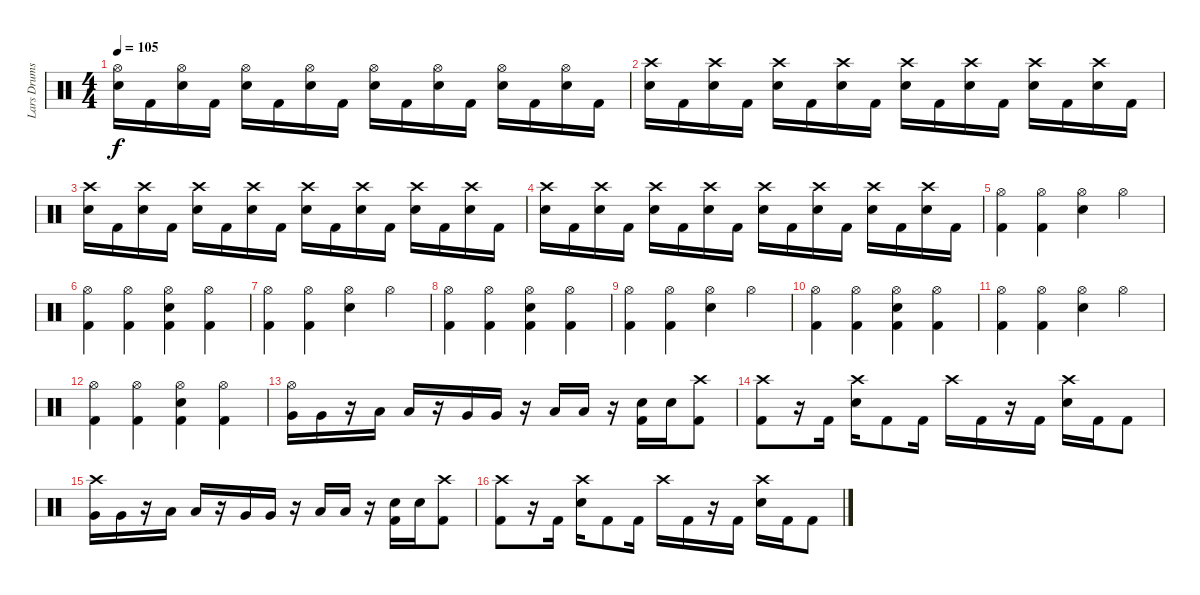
\track ("Lars Drums" "Lars Drums") {instrument percussion}
\staff {score}
\articulation defaults
\ts (4 4)
\tempo 105
\clef neutral
\ks c
("Hi-Hat (open)" "Snare (hit) 2").16{dy f} "Kick (hit) 2".16 ("Hi-Hat (open)" "Snare (hit) 2").16 "Kick (hit) 2".16 ("Hi-Hat (open)" "Snare (hit) 2").16 "Kick (hit) 2".16 ("Hi-Hat (open)" "Snare (hit) 2").16 "Kick (hit) 2".16 ("Hi-Hat (open)" "Snare (hit) 2").16 "Kick (hit) 2".16 ("Hi-Hat (open)" "Snare (hit) 2").16 "Kick (hit) 2".16 ("Hi-Hat (open)" "Snare (hit) 2").16 "Kick (hit) 2".16 ("Hi-Hat (open)" "Snare (hit) 2").16 "Kick (hit) 2".16 |
("Crash high (hit)" "Snare (hit) 2").16 "Kick (hit) 2".16 ("Crash high (hit)" "Snare (hit) 2").16 "Kick (hit) 2".16 ("Crash high (hit)" "Snare (hit) 2").16 "Kick (hit) 2".16 ("Crash high (hit)" "Snare (hit) 2").16 "Kick (hit) 2".16 ("Crash high (hit)" "Snare (hit) 2").16 "Kick (hit) 2".16 ("Crash high (hit)" "Snare (hit) 2").16 "Kick (hit) 2".16 ("Crash high (hit)" "Snare (hit) 2").16 "Kick (hit) 2".16 ("Crash high (hit)" "Snare (hit) 2").16 "Kick (hit) 2".16 |
("Crash high (hit)" "Snare (hit) 2").16 "Kick (hit) 2".16 ("Crash high (hit)" "Snare (hit) 2").16 "Kick (hit) 2".16 ("Crash high (hit)" "Snare (hit) 2").16 "Kick (hit) 2".16 ("Crash high (hit)" "Snare (hit) 2").16 "Kick (hit) 2".16 ("Crash high (hit)" "Snare (hit) 2").16 "Kick (hit) 2".16 ("Crash high (hit)" "Snare (hit) 2").16 "Kick (hit) 2".16 ("Crash high (hit)" "Snare (hit) 2").16 "Kick (hit) 2".16 ("Crash high (hit)" "Snare (hit) 2").16 "Kick (hit) 2".16 |
("Crash high (hit)" "Snare (hit) 2").16 "Kick (hit) 2".16 ("Crash high (hit)" "Snare (hit) 2").16 "Kick (hit) 2".16 ("Crash high (hit)" "Snare (hit) 2").16 "Kick (hit) 2".16 ("Crash high (hit)" "Snare (hit) 2").16 "Kick (hit) 2".16 ("Crash high (hit)" "Snare (hit) 2").16 "Kick (hit) 2".16 ("Crash high (hit)" "Snare (hit) 2").16 "Kick (hit) 2".16 ("Crash high (hit)" "Snare (hit) 2").16 "Kick (hit) 2".16 ("Crash high (hit)" "Snare (hit) 2").16 "Kick (hit) 2".16 |
("Hi-Hat (open)" "Kick (hit) 2").4 ("Hi-Hat (open)" "Kick (hit) 2").4 ("Hi-Hat (open)" "Snare (hit) 2").4 "Hi-Hat (open)".4 |
("Hi-Hat (open)" "Kick (hit) 2").4 ("Hi-Hat (open)" "Kick (hit) 2").4 ("Hi-Hat (open)" "Kick (hit) 2" "Snare (hit) 2").4 ("Hi-Hat (open)" "Kick (hit) 2").4 |
("Hi-Hat (open)" "Kick (hit) 2").4 ("Hi-Hat (open)" "Kick (hit) 2").4 ("Hi-Hat (open)" "Snare (hit) 2").4 "Hi-Hat (open)".4 |
("Hi-Hat (open)" "Kick (hit) 2").4 ("Hi-Hat (open)" "Kick (hit) 2").4 ("Hi-Hat (open)" "Kick (hit) 2" "Snare (hit) 2").4 ("Hi-Hat (open)" "Kick (hit) 2").4 |
("Hi-Hat (open)" "Kick (hit) 2").4 ("Hi-Hat (open)" "Kick (hit) 2").4 ("Hi-Hat (open)" "Snare (hit) 2").4 "Hi-Hat (open)".4 |
("Hi-Hat (open)" "Kick (hit) 2").4 ("Hi-Hat (open)" "Kick (hit) 2").4 ("Hi-Hat (open)" "Kick (hit) 2" "Snare (hit) 2").4 ("Hi-Hat (open)" "Kick (hit) 2").4 |
("Hi-Hat (open)" "Kick (hit) 2").4 ("Hi-Hat (open)" "Kick (hit) 2").4 ("Hi-Hat (open)" "Snare (hit) 2").4 "Hi-Hat (open)".4 |
("Hi-Hat (open)" "Kick (hit) 2").4 ("Hi-Hat (open)" "Kick (hit) 2").4 ("Hi-Hat (open)" "Kick (hit) 2" "Snare (hit) 2").4 ("Hi-Hat (open)" "Kick (hit) 2").4 |
("Hi-Hat (open)" "Very Low Tom (hit)").16 "Very Low Tom (hit)".16 r.16 "Low Floor Tom (hit)".16 "Low Floor Tom (hit)".16 r.16 "Very Low Tom (hit)".16 "Very Low Tom (hit)".16 r.16 "Low Floor Tom (hit)".16 "Low Floor Tom (hit)".16 r.16 ("Kick (hit) 2" "Snare (hit) 2").16 "Snare (hit) 2".16 ("Crash high (hit)" "Kick (hit) 2").8 |
("Crash high (hit)" "Kick (hit) 2").8 r.16 "Kick (hit) 2".16 ("Crash high (hit)" "Snare (hit) 2").16 "Kick (hit) 2".8 "Kick (hit) 2".16 "Crash high (hit)".16 "Kick (hit) 2".16 r.16 "Kick (hit) 2".16 ("Crash high (hit)" "Snare (hit) 2").16 "Kick (hit) 2".16 "Kick (hit) 2".8 |
("Crash high (hit)" "Very Low Tom (hit)").16 "Very Low Tom (hit)".16 r.16 "Low Floor Tom (hit)".16 "Low Floor Tom (hit)".16 r.16 "Very Low Tom (hit)".16 "Very Low Tom (hit)".16 r.16 "Low Floor Tom (hit)".16 "Low Floor Tom (hit)".16 r.16 ("Kick (hit) 2" "Snare (hit) 2").16 "Snare (hit) 2".16 ("Crash high (hit)" "Kick (hit) 2").8 |
("Crash high (hit)" "Kick (hit) 2").8 r.16 "Kick (hit) 2".16 ("Crash high (hit)" "Snare (hit) 2").16 "Kick (hit) 2".8 "Kick (hit) 2".16 "Crash high (hit)".16 "Kick (hit) 2".16 r.16 "Kick (hit) 2".16 ("Crash high (hit)" "Snare (hit) 2").16 "Kick (hit) 2".16 "Kick (hit) 2".8
